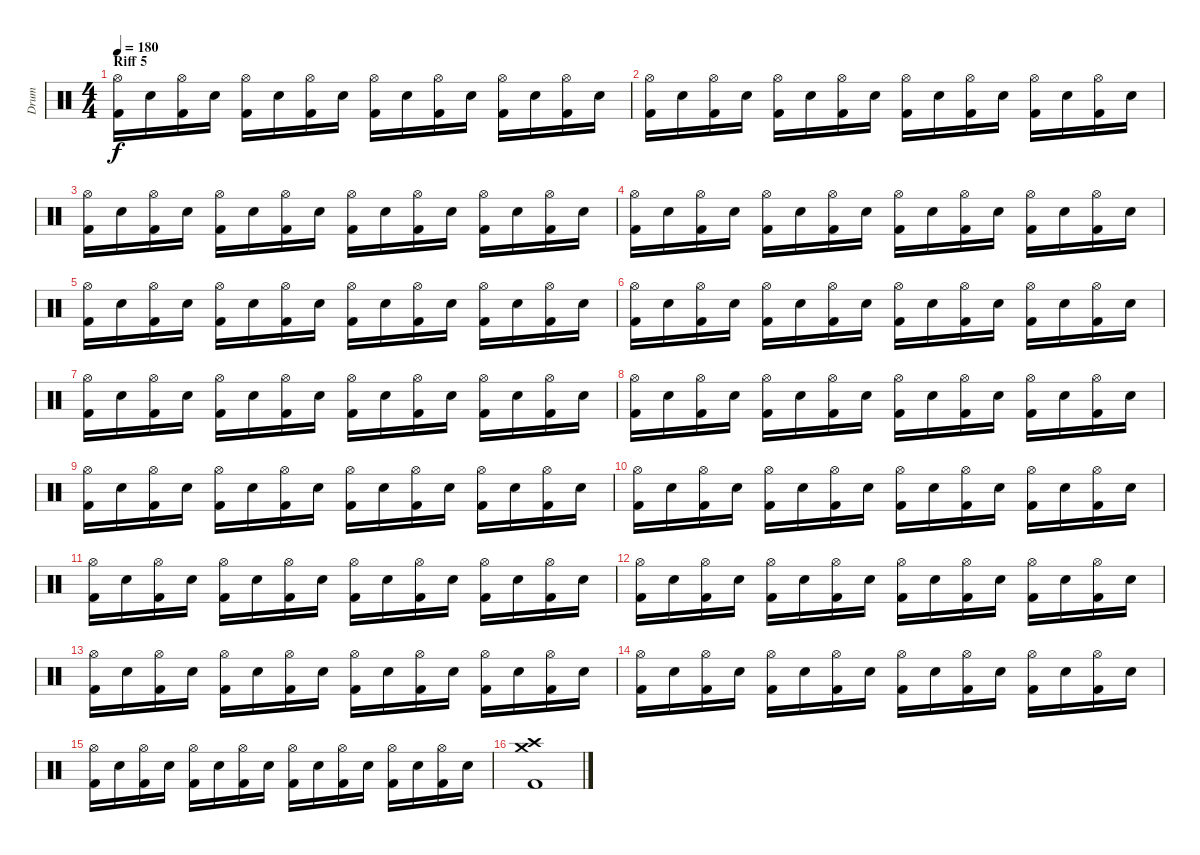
\track ("Drum" "Drum") {instrument percussion}
\staff {score}
\articulation defaults
\ts (4 4)
\section ("" "Riff 5")
\tempo 180
\clef neutral
\ks c
("Hi-Hat (open)" "Kick (hit) 2").16{dy f} "Electric Snare (hit)".16 ("Hi-Hat (open)" "Kick (hit) 2").16 "Electric Snare (hit)".16 ("Hi-Hat (open)" "Kick (hit) 2").16 "Electric Snare (hit)".16 ("Hi-Hat (open)" "Kick (hit) 2").16 "Electric Snare (hit)".16 ("Hi-Hat (open)" "Kick (hit) 2").16 "Electric Snare (hit)".16 ("Hi-Hat (open)" "Kick (hit) 2").16 "Electric Snare (hit)".16 ("Hi-Hat (open)" "Kick (hit) 2").16 "Electric Snare (hit)".16 ("Hi-Hat (open)" "Kick (hit) 2").16 "Electric Snare (hit)".16 |
("Hi-Hat (open)" "Kick (hit) 2").16 "Electric Snare (hit)".16 ("Hi-Hat (open)" "Kick (hit) 2").16 "Electric Snare (hit)".16 ("Hi-Hat (open)" "Kick (hit) 2").16 "Electric Snare (hit)".16 ("Hi-Hat (open)" "Kick (hit) 2").16 "Electric Snare (hit)".16 ("Hi-Hat (open)" "Kick (hit) 2").16 "Electric Snare (hit)".16 ("Hi-Hat (open)" "Kick (hit) 2").16 "Electric Snare (hit)".16 ("Hi-Hat (open)" "Kick (hit) 2").16 "Electric Snare (hit)".16 ("Hi-Hat (open)" "Kick (hit) 2").16 "Electric Snare (hit)".16 |
("Hi-Hat (open)" "Kick (hit) 2").16 "Electric Snare (hit)".16 ("Hi-Hat (open)" "Kick (hit) 2").16 "Electric Snare (hit)".16 ("Hi-Hat (open)" "Kick (hit) 2").16 "Electric Snare (hit)".16 ("Hi-Hat (open)" "Kick (hit) 2").16 "Electric Snare (hit)".16 ("Hi-Hat (open)" "Kick (hit) 2").16 "Electric Snare (hit)".16 ("Hi-Hat (open)" "Kick (hit) 2").16 "Electric Snare (hit)".16 ("Hi-Hat (open)" "Kick (hit) 2").16 "Electric Snare (hit)".16 ("Hi-Hat (open)" "Kick (hit) 2").16 "Electric Snare (hit)".16 |
("Hi-Hat (open)" "Kick (hit) 2").16 "Electric Snare (hit)".16 ("Hi-Hat (open)" "Kick (hit) 2").16 "Electric Snare (hit)".16 ("Hi-Hat (open)" "Kick (hit) 2").16 "Electric Snare (hit)".16 ("Hi-Hat (open)" "Kick (hit) 2").16 "Electric Snare (hit)".16 ("Hi-Hat (open)" "Kick (hit) 2").16 "Electric Snare (hit)".16 ("Hi-Hat (open)" "Kick (hit) 2").16 "Electric Snare (hit)".16 ("Hi-Hat (open)" "Kick (hit) 2").16 "Electric Snare (hit)".16 ("Hi-Hat (open)" "Kick (hit) 2").16 "Electric Snare (hit)".16 |
("Hi-Hat (open)" "Kick (hit) 2").16 "Electric Snare (hit)".16 ("Hi-Hat (open)" "Kick (hit) 2").16 "Electric Snare (hit)".16 ("Hi-Hat (open)" "Kick (hit) 2").16 "Electric Snare (hit)".16 ("Hi-Hat (open)" "Kick (hit) 2").16 "Electric Snare (hit)".16 ("Hi-Hat (open)" "Kick (hit) 2").16 "Electric Snare (hit)".16 ("Hi-Hat (open)" "Kick (hit) 2").16 "Electric Snare (hit)".16 ("Hi-Hat (open)" "Kick (hit) 2").16 "Electric Snare (hit)".16 ("Hi-Hat (open)" "Kick (hit) 2").16 "Electric Snare (hit)".16 |
("Hi-Hat (open)" "Kick (hit) 2").16 "Electric Snare (hit)".16 ("Hi-Hat (open)" "Kick (hit) 2").16 "Electric Snare (hit)".16 ("Hi-Hat (open)" "Kick (hit) 2").16 "Electric Snare (hit)".16 ("Hi-Hat (open)" "Kick (hit) 2").16 "Electric Snare (hit)".16 ("Hi-Hat (open)" "Kick (hit) 2").16 "Electric Snare (hit)".16 ("Hi-Hat (open)" "Kick (hit) 2").16 "Electric Snare (hit)".16 ("Hi-Hat (open)" "Kick (hit) 2").16 "Electric Snare (hit)".16 ("Hi-Hat (open)" "Kick (hit) 2").16 "Electric Snare (hit)".16 |
("Hi-Hat (open)" "Kick (hit) 2").16 "Electric Snare (hit)".16 ("Hi-Hat (open)" "Kick (hit) 2").16 "Electric Snare (hit)".16 ("Hi-Hat (open)" "Kick (hit) 2").16 "Electric Snare (hit)".16 ("Hi-Hat (open)" "Kick (hit) 2").16 "Electric Snare (hit)".16 ("Hi-Hat (open)" "Kick (hit) 2").16 "Electric Snare (hit)".16 ("Hi-Hat (open)" "Kick (hit) 2").16 "Electric Snare (hit)".16 ("Hi-Hat (open)" "Kick (hit) 2").16 "Electric Snare (hit)".16 ("Hi-Hat (open)" "Kick (hit) 2").16 "Electric Snare (hit)".16 |
("Hi-Hat (open)" "Kick (hit) 2").16 "Electric Snare (hit)".16 ("Hi-Hat (open)" "Kick (hit) 2").16 "Electric Snare (hit)".16 ("Hi-Hat (open)" "Kick (hit) 2").16 "Electric Snare (hit)".16 ("Hi-Hat (open)" "Kick (hit) 2").16 "Electric Snare (hit)".16 ("Hi-Hat (open)" "Kick (hit) 2").16 "Electric Snare (hit)".16 ("Hi-Hat (open)" "Kick (hit) 2").16 "Electric Snare (hit)".16 ("Hi-Hat (open)" "Kick (hit) 2").16 "Electric Snare (hit)".16 ("Hi-Hat (open)" "Kick (hit) 2").16 "Electric Snare (hit)".16 |
("Hi-Hat (open)" "Kick (hit) 2").16 "Electric Snare (hit)".16 ("Hi-Hat (open)" "Kick (hit) 2").16 "Electric Snare (hit)".16 ("Hi-Hat (open)" "Kick (hit) 2").16 "Electric Snare (hit)".16 ("Hi-Hat (open)" "Kick (hit) 2").16 "Electric Snare (hit)".16 ("Hi-Hat (open)" "Kick (hit) 2").16 "Electric Snare (hit)".16 ("Hi-Hat (open)" "Kick (hit) 2").16 "Electric Snare (hit)".16 ("Hi-Hat (open)" "Kick (hit) 2").16 "Electric Snare (hit)".16 ("Hi-Hat (open)" "Kick (hit) 2").16 "Electric Snare (hit)".16 |
("Hi-Hat (open)" "Kick (hit) 2").16 "Electric Snare (hit)".16 ("Hi-Hat (open)" "Kick (hit) 2").16 "Electric Snare (hit)".16 ("Hi-Hat (open)" "Kick (hit) 2").16 "Electric Snare (hit)".16 ("Hi-Hat (open)" "Kick (hit) 2").16 "Electric Snare (hit)".16 ("Hi-Hat (open)" "Kick (hit) 2").16 "Electric Snare (hit)".16 ("Hi-Hat (open)" "Kick (hit) 2").16 "Electric Snare (hit)".16 ("Hi-Hat (open)" "Kick (hit) 2").16 "Electric Snare (hit)".16 ("Hi-Hat (open)" "Kick (hit) 2").16 "Electric Snare (hit)".16 |
("Hi-Hat (open)" "Kick (hit) 2").16 "Electric Snare (hit)".16 ("Hi-Hat (open)" "Kick (hit) 2").16 "Electric Snare (hit)".16 ("Hi-Hat (open)" "Kick (hit) 2").16 "Electric Snare (hit)".16 ("Hi-Hat (open)" "Kick (hit) 2").16 "Electric Snare (hit)".16 ("Hi-Hat (open)" "Kick (hit) 2").16 "Electric Snare (hit)".16 ("Hi-Hat (open)" "Kick (hit) 2").16 "Electric Snare (hit)".16 ("Hi-Hat (open)" "Kick (hit) 2").16 "Electric Snare (hit)".16 ("Hi-Hat (open)" "Kick (hit) 2").16 "Electric Snare (hit)".16 |
("Hi-Hat (open)" "Kick (hit) 2").16 "Electric Snare (hit)".16 ("Hi-Hat (open)" "Kick (hit) 2").16 "Electric Snare (hit)".16 ("Hi-Hat (open)" "Kick (hit) 2").16 "Electric Snare (hit)".16 ("Hi-Hat (open)" "Kick (hit) 2").16 "Electric Snare (hit)".16 ("Hi-Hat (open)" "Kick (hit) 2").16 "Electric Snare (hit)".16 ("Hi-Hat (open)" "Kick (hit) 2").16 "Electric Snare (hit)".16 ("Hi-Hat (open)" "Kick (hit) 2").16 "Electric Snare (hit)".16 ("Hi-Hat (open)" "Kick (hit) 2").16 "Electric Snare (hit)".16 |
("Hi-Hat (open)" "Kick (hit) 2").16 "Electric Snare (hit)".16 ("Hi-Hat (open)" "Kick (hit) 2").16 "Electric Snare (hit)".16 ("Hi-Hat (open)" "Kick (hit) 2").16 "Electric Snare (hit)".16 ("Hi-Hat (open)" "Kick (hit) 2").16 "Electric Snare (hit)".16 ("Hi-Hat (open)" "Kick (hit) 2").16 "Electric Snare (hit)".16 ("Hi-Hat (open)" "Kick (hit) 2").16 "Electric Snare (hit)".16 ("Hi-Hat (open)" "Kick (hit) 2").16 "Electric Snare (hit)".16 ("Hi-Hat (open)" "Kick (hit) 2").16 "Electric Snare (hit)".16 |
("Hi-Hat (open)" "Kick (hit) 2").16 "Electric Snare (hit)".16 ("Hi-Hat (open)" "Kick (hit) 2").16 "Electric Snare (hit)".16 ("Hi-Hat (open)" "Kick (hit) 2").16 "Electric Snare (hit)".16 ("Hi-Hat (open)" "Kick (hit) 2").16 "Electric Snare (hit)".16 ("Hi-Hat (open)" "Kick (hit) 2").16 "Electric Snare (hit)".16 ("Hi-Hat (open)" "Kick (hit) 2").16 "Electric Snare (hit)".16 ("Hi-Hat (open)" "Kick (hit) 2").16 "Electric Snare (hit)".16 ("Hi-Hat (open)" "Kick (hit) 2").16 "Electric Snare (hit)".16 |
("Hi-Hat (open)" "Kick (hit) 2").16 "Electric Snare (hit)".16 ("Hi-Hat (open)" "Kick (hit) 2").16 "Electric Snare (hit)".16 ("Hi-Hat (open)" "Kick (hit) 2").16 "Electric Snare (hit)".16 ("Hi-Hat (open)" "Kick (hit) 2").16 "Electric Snare (hit)".16 ("Hi-Hat (open)" "Kick (hit) 2").16 "Electric Snare (hit)".16 ("Hi-Hat (open)" "Kick (hit) 2").16 "Electric Snare (hit)".16 ("Hi-Hat (open)" "Kick (hit) 2").16 "Electric Snare (hit)".16 ("Hi-Hat (open)" "Kick (hit) 2").16 "Electric Snare (hit)".16 |
("Crash medium (hit)" "Crash high (hit)" "Kick (hit) 2").1
